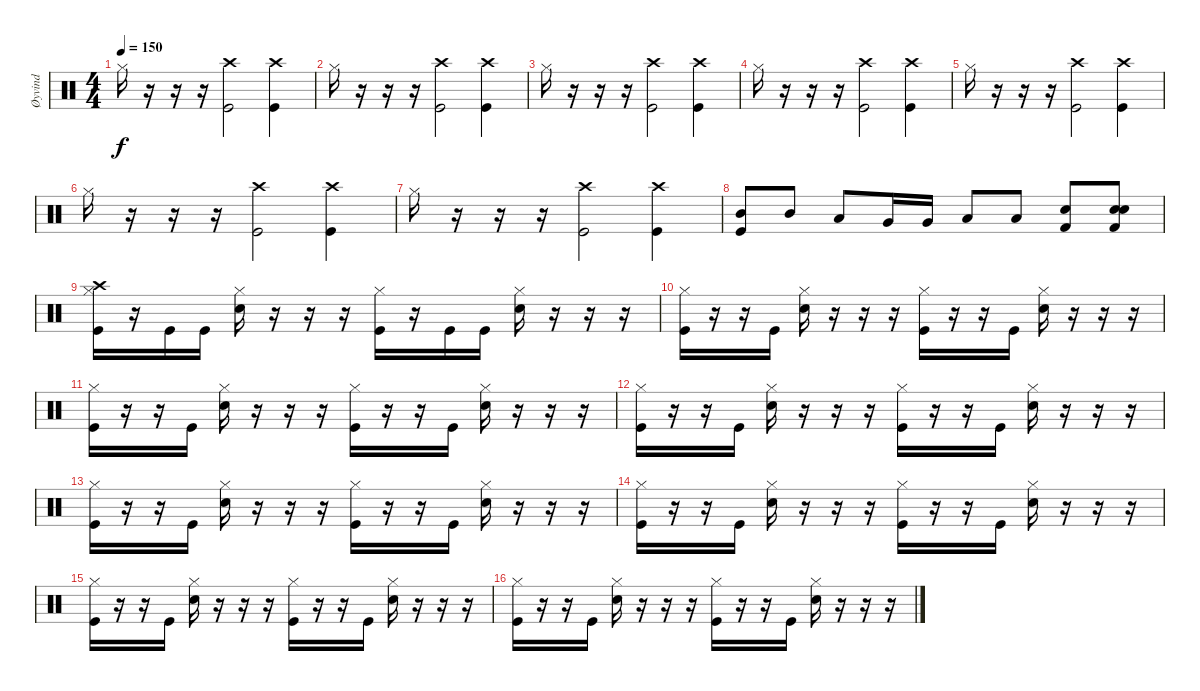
\track ("Øyvind" "Øyvind") {instrument percussion}
\staff {score}
\articulation defaults
\ts (4 4)
\tempo 150
\clef neutral
\ks c "Hi-Hat (closed)".16{dy f}
r.16 r.16 r.16 ("Crash high (hit)" "Kick (hit)").2 ("Crash high (hit)" "Kick (hit)").4 |
"Hi-Hat (closed)".16 r.16 r.16 r.16 ("Crash high (hit)" "Kick (hit)").2 ("Crash high (hit)" "Kick (hit)").4 |
"Hi-Hat (closed)".16 r.16 r.16 r.16 ("Crash high (hit)" "Kick (hit)").2 ("Crash high (hit)" "Kick (hit)").4 |
"Hi-Hat (closed)".16 r.16 r.16 r.16 ("Crash high (hit)" "Kick (hit)").2 ("Crash high (hit)" "Kick (hit)").4 |
"Hi-Hat (closed)".16 r.16 r.16 r.16 ("Crash high (hit)" "Kick (hit)").2 ("Crash high (hit)" "Kick (hit)").4 |
"Hi-Hat (closed)".16 r.16 r.16 r.16 ("Crash high (hit)" "Kick (hit)").2 ("Crash high (hit)" "Kick (hit)").4 |
"Hi-Hat (closed)".16 r.16 r.16 r.16 ("Crash high (hit)" "Kick (hit)").2 ("Crash high (hit)" "Kick (hit)").4 |
("Mid Tom (hit)" "Kick (hit)").8 "Mid Tom (hit)".8 "Low Tom (hit)".8 "Very Low Tom (hit)".16 "Very Low Tom (hit)".16 "Low Tom (hit)".8 "Low Tom (hit)".8 ("Kick (hit) 2" "Electric Snare (hit)").8 ("Kick (hit) 2" "Electric Snare (hit)" "Snare (hit)").8 |
("Crash high (hit)" "Kick (hit)" "Hi-Hat (closed)").16 r.16 "Kick (hit)".16 "Kick (hit)".16 ("Electric Snare (hit)" "Hi-Hat (closed)").16 r.16 r.16 r.16 ("Kick (hit)" "Hi-Hat (closed)").16 r.16 "Kick (hit)".16 "Kick (hit)".16 ("Snare (hit) 2" "Hi-Hat (closed)").16 r.16 r.16 r.16 |
("Kick (hit)" "Hi-Hat (closed)").16 r.16 r.16 "Kick (hit)".16 ("Electric Snare (hit)" "Hi-Hat (closed)").16 r.16 r.16 r.16 ("Kick (hit)" "Hi-Hat (closed)").16 r.16 r.16 "Kick (hit)".16 ("Electric Snare (hit)" "Hi-Hat (closed)").16 r.16 r.16 r.16 |
("Kick (hit)" "Hi-Hat (closed)").16 r.16 r.16 "Kick (hit)".16 ("Electric Snare (hit)" "Hi-Hat (closed)").16 r.16 r.16 r.16 ("Kick (hit)" "Hi-Hat (closed)").16 r.16 r.16 "Kick (hit)".16 ("Electric Snare (hit)" "Hi-Hat (closed)").16 r.16 r.16 r.16 |
("Kick (hit)" "Hi-Hat (closed)").16 r.16 r.16 "Kick (hit)".16 ("Electric Snare (hit)" "Hi-Hat (closed)").16 r.16 r.16 r.16 ("Kick (hit)" "Hi-Hat (closed)").16 r.16 r.16 "Kick (hit)".16 ("Electric Snare (hit)" "Hi-Hat (closed)").16 r.16 r.16 r.16 |
("Kick (hit)" "Hi-Hat (closed)").16 r.16 r.16 "Kick (hit)".16 ("Electric Snare (hit)" "Hi-Hat (closed)").16 r.16 r.16 r.16 ("Kick (hit)" "Hi-Hat (closed)").16 r.16 r.16 "Kick (hit)".16 ("Electric Snare (hit)" "Hi-Hat (closed)").16 r.16 r.16 r.16 |
("Kick (hit)" "Hi-Hat (closed)").16 r.16 r.16 "Kick (hit)".16 ("Electric Snare (hit)" "Hi-Hat (closed)").16 r.16 r.16 r.16 ("Kick (hit)" "Hi-Hat (closed)").16 r.16 r.16 "Kick (hit)".16 ("Electric Snare (hit)" "Hi-Hat (closed)").16 r.16 r.16 r.16 |
("Kick (hit)" "Hi-Hat (closed)").16 r.16 r.16 "Kick (hit)".16 ("Electric Snare (hit)" "Hi-Hat (closed)").16 r.16 r.16 r.16 ("Kick (hit)" "Hi-Hat (closed)").16 r.16 r.16 "Kick (hit)".16 ("Electric Snare (hit)" "Hi-Hat (closed)").16 r.16 r.16 r.16 |
("Kick (hit)" "Hi-Hat (closed)").16 r.16 r.16 "Kick (hit)".16 ("Electric Snare (hit)" "Hi-Hat (closed)").16 r.16 r.16 r.16 ("Kick (hit)" "Hi-Hat (closed)").16 r.16 r.16 "Kick (hit)".16 ("Electric Snare (hit)" "Hi-Hat (closed)").16 r.16 r.16 r.16
